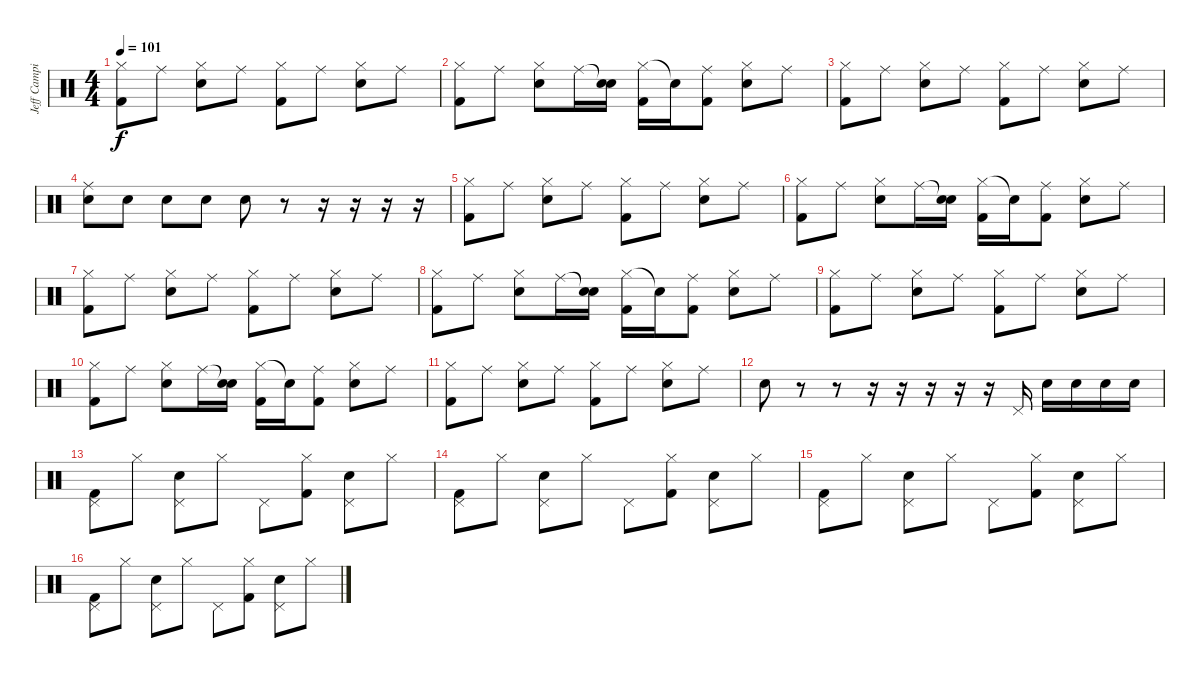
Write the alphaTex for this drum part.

\track ("Jeff Campitelli " "Jeff Campi") {instrument percussion}
\staff {score}
\articulation defaults
\ts (4 4)
\tempo 101
\clef neutral
\ks c
("Hi-Hat (closed)" "Kick (hit) 2").8{dy f} "Ride (middle)".8 ("Hi-Hat (closed)" "Electric Snare (hit)").8 "Ride (middle)".8 ("Hi-Hat (closed)" "Kick (hit) 2").8 "Ride (middle)".8 ("Hi-Hat (closed)" "Electric Snare (hit)").8 "Ride (middle)".8 |
("Hi-Hat (closed)" "Kick (hit) 2").8 "Ride (middle)".8 ("Hi-Hat (closed)" "Electric Snare (hit)").8 "Ride (middle)".16 ("Snare (hit)"{t} "Electric Snare (hit)").16 ("Hi-Hat (closed)" "Kick (hit) 2").16 "Snare (hit)"{t}.16 ("Ride (middle)" "Kick (hit) 2").8 ("Hi-Hat (closed)" "Electric Snare (hit)").8 "Ride (middle)".8 |
("Hi-Hat (closed)" "Kick (hit) 2").8 "Ride (middle)".8 ("Hi-Hat (closed)" "Electric Snare (hit)").8 "Ride (middle)".8 ("Hi-Hat (closed)" "Kick (hit) 2").8 "Ride (middle)".8 ("Hi-Hat (closed)" "Electric Snare (hit)").8 "Ride (middle)".8 |
("Ride (middle)" "Electric Snare (hit)").8 "Electric Snare (hit)".8 "Electric Snare (hit)".8 "Electric Snare (hit)".8 "Electric Snare (hit)".8 r.8 r.16 r.16 r.16 r.16 |
("Hi-Hat (closed)" "Kick (hit) 2").8 "Ride (middle)".8 ("Hi-Hat (closed)" "Electric Snare (hit)").8 "Ride (middle)".8 ("Hi-Hat (closed)" "Kick (hit) 2").8 "Ride (middle)".8 ("Hi-Hat (closed)" "Electric Snare (hit)").8 "Ride (middle)".8 |
("Hi-Hat (closed)" "Kick (hit) 2").8 "Ride (middle)".8 ("Hi-Hat (closed)" "Electric Snare (hit)").8 "Ride (middle)".16 ("Snare (hit)"{t} "Electric Snare (hit)").16 ("Hi-Hat (closed)" "Kick (hit) 2").16 "Snare (hit)"{t}.16 ("Ride (middle)" "Kick (hit) 2").8 ("Hi-Hat (closed)" "Electric Snare (hit)").8 "Ride (middle)".8 |
("Hi-Hat (closed)" "Kick (hit) 2").8 "Ride (middle)".8 ("Hi-Hat (closed)" "Electric Snare (hit)").8 "Ride (middle)".8 ("Hi-Hat (closed)" "Kick (hit) 2").8 "Ride (middle)".8 ("Hi-Hat (closed)" "Electric Snare (hit)").8 "Ride (middle)".8 |
("Hi-Hat (closed)" "Kick (hit) 2").8 "Ride (middle)".8 ("Hi-Hat (closed)" "Electric Snare (hit)").8 "Ride (middle)".16 ("Snare (hit)"{t} "Electric Snare (hit)").16 ("Hi-Hat (closed)" "Kick (hit) 2").16 "Snare (hit)"{t}.16 ("Ride (middle)" "Kick (hit) 2").8 ("Hi-Hat (closed)" "Electric Snare (hit)").8 "Ride (middle)".8 |
("Hi-Hat (closed)" "Kick (hit) 2").8 "Ride (middle)".8 ("Hi-Hat (closed)" "Electric Snare (hit)").8 "Ride (middle)".8 ("Hi-Hat (closed)" "Kick (hit) 2").8 "Ride (middle)".8 ("Hi-Hat (closed)" "Electric Snare (hit)").8 "Ride (middle)".8 |
("Hi-Hat (closed)" "Kick (hit) 2").8 "Ride (middle)".8 ("Hi-Hat (closed)" "Electric Snare (hit)").8 "Ride (middle)".16 ("Snare (hit)"{t} "Electric Snare (hit)").16 ("Hi-Hat (closed)" "Kick (hit) 2").16 "Snare (hit)"{t}.16 ("Ride (middle)" "Kick (hit) 2").8 ("Hi-Hat (closed)" "Electric Snare (hit)").8 "Ride (middle)".8 |
("Hi-Hat (closed)" "Kick (hit) 2").8 "Ride (middle)".8 ("Hi-Hat (closed)" "Electric Snare (hit)").8 "Ride (middle)".8 ("Hi-Hat (closed)" "Kick (hit) 2").8 "Ride (middle)".8 ("Hi-Hat (closed)" "Electric Snare (hit)").8 "Ride (middle)".8 |
"Electric Snare (hit)".8 r.8 r.8 r.16 r.16 r.16 r.16 r.16 "Pedal Hi-Hat (hit)".16 "Electric Snare (hit)".16 "Electric Snare (hit)".16 "Electric Snare (hit)".16 "Electric Snare (hit)".16 |
("Pedal Hi-Hat (hit)" "Kick (hit) 2").8 "Hi-Hat (closed)".8 ("Pedal Hi-Hat (hit)" "Electric Snare (hit)").8 "Hi-Hat (closed)".8 "Pedal Hi-Hat (hit)".8 ("Hi-Hat (closed)" "Kick (hit) 2").8 ("Pedal Hi-Hat (hit)" "Electric Snare (hit)").8 "Hi-Hat (closed)".8 |
("Pedal Hi-Hat (hit)" "Kick (hit) 2").8 "Hi-Hat (closed)".8 ("Pedal Hi-Hat (hit)" "Electric Snare (hit)").8 "Hi-Hat (closed)".8 "Pedal Hi-Hat (hit)".8 ("Hi-Hat (closed)" "Kick (hit) 2").8 ("Pedal Hi-Hat (hit)" "Electric Snare (hit)").8 "Hi-Hat (closed)".8 |
("Pedal Hi-Hat (hit)" "Kick (hit) 2").8 "Hi-Hat (closed)".8 ("Pedal Hi-Hat (hit)" "Electric Snare (hit)").8 "Hi-Hat (closed)".8 "Pedal Hi-Hat (hit)".8 ("Hi-Hat (closed)" "Kick (hit) 2").8 ("Pedal Hi-Hat (hit)" "Electric Snare (hit)").8 "Hi-Hat (closed)".8 |
("Pedal Hi-Hat (hit)" "Kick (hit) 2").8 "Hi-Hat (closed)".8 ("Pedal Hi-Hat (hit)" "Electric Snare (hit)").8 "Hi-Hat (closed)".8 "Pedal Hi-Hat (hit)".8 ("Hi-Hat (closed)" "Kick (hit) 2").8 ("Pedal Hi-Hat (hit)" "Electric Snare (hit)").8 "Hi-Hat (closed)".8
